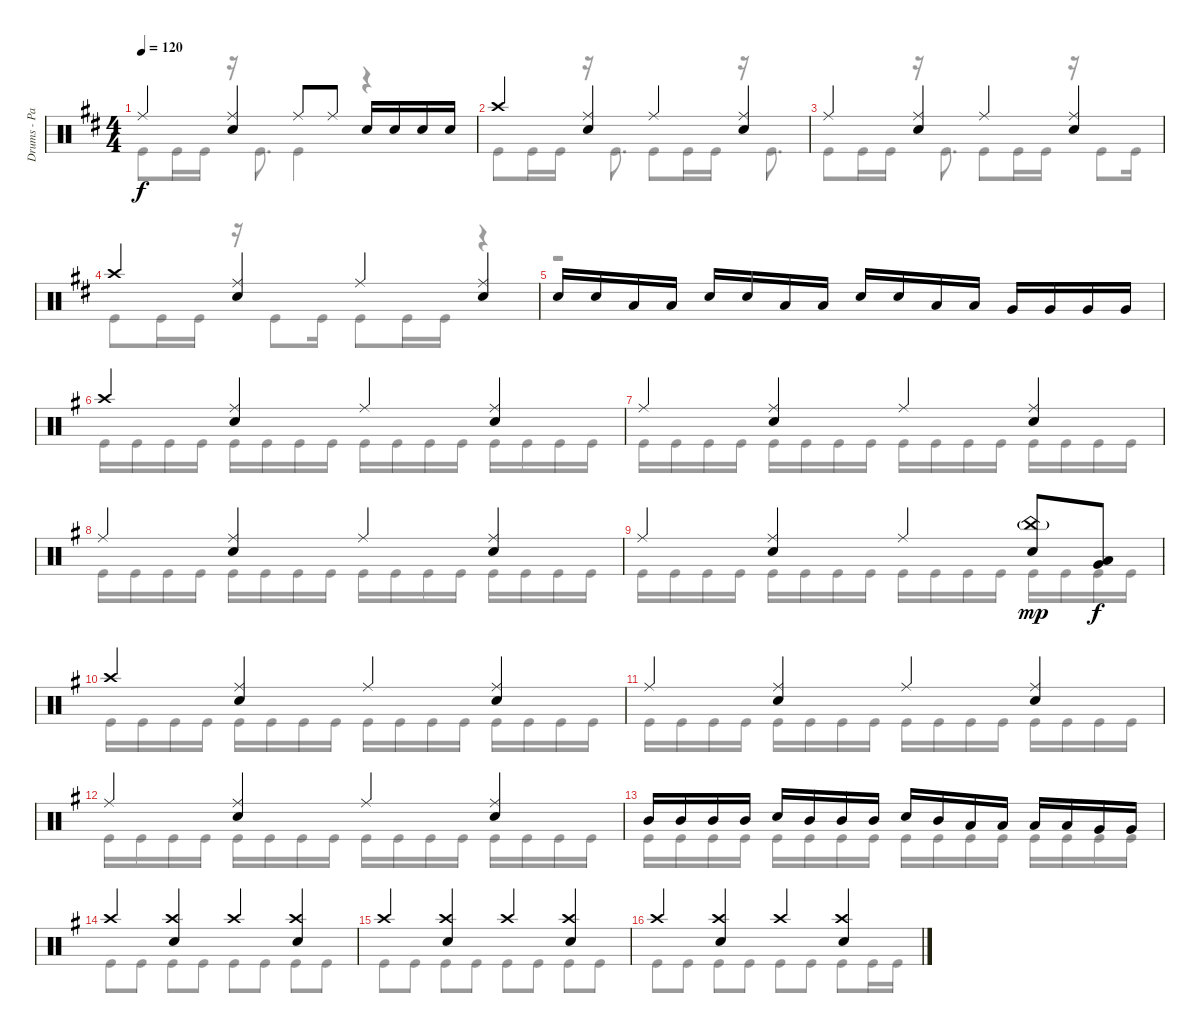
\track ("Drums - Patrick Johansson" "Drums - Pa") {instrument percussion}
\staff {score}
\articulation defaults
\voice
\ts (4 4)
\tempo 120
\clef neutral
\ks bminor "Ride (middle)".4{dy f}
("Ride (middle)" "Snare (hit) 2").4 "Ride (middle)".8 "Ride (middle)".8 "Snare (hit) 2".16 "Snare (hit) 2".16 "Snare (hit) 2".16 "Snare (hit) 2".16 |
"Crash high (hit)".4 ("Ride (middle)" "Snare (hit) 2").4 "Ride (middle)".4 ("Ride (middle)" "Snare (hit) 2").4 |
"Ride (middle)".4 ("Ride (middle)" "Snare (hit) 2").4 "Ride (middle)".4 ("Ride (middle)" "Snare (hit) 2").4 |
"Crash high (hit)".4 ("Ride (middle)" "Snare (hit) 2").4 "Ride (middle)".4 ("Ride (middle)" "Snare (hit) 2").4 |
"Snare (hit) 2".16 "Snare (hit) 2".16 "Low Tom (hit)".16 "Low Tom (hit)".16 "Snare (hit) 2".16 "Snare (hit) 2".16 "Low Tom (hit)".16 "Low Tom (hit)".16 "Snare (hit) 2".16 "Snare (hit) 2".16 "Low Tom (hit)".16 "Low Tom (hit)".16 "Very Low Tom (hit)".16 "Very Low Tom (hit)".16 "Very Low Tom (hit)".16 "Very Low Tom (hit)".16 |
\ks eminor "Crash high (hit)".4
("Ride (middle)" "Snare (hit) 2").4 "Ride (middle)".4 ("Ride (middle)" "Snare (hit) 2").4 |
"Ride (middle)".4 ("Ride (middle)" "Snare (hit) 2").4 "Ride (middle)".4 ("Ride (middle)" "Snare (hit) 2").4 |
"Ride (middle)".4 ("Ride (middle)" "Snare (hit) 2").4 "Ride (middle)".4 ("Ride (middle)" "Snare (hit) 2").4 |
"Ride (middle)".4 ("Ride (middle)" "Snare (hit) 2").4 "Ride (middle)".4 ("China (hit)"{g} "Snare (hit) 2").8{dy mp} ("Low Tom (hit)" "Very Low Tom (hit)").8{dy f} |
"Crash high (hit)".4 ("Ride (middle)" "Snare (hit) 2").4 "Ride (middle)".4 ("Ride (middle)" "Snare (hit) 2").4 |
"Ride (middle)".4 ("Ride (middle)" "Snare (hit) 2").4 "Ride (middle)".4 ("Ride (middle)" "Snare (hit) 2").4 |
"Ride (middle)".4 ("Ride (middle)" "Snare (hit) 2").4 "Ride (middle)".4 ("Ride (middle)" "Snare (hit) 2").4 |
"Mid Tom (hit)".16 "Mid Tom (hit)".16 "Mid Tom (hit)".16 "Mid Tom (hit)".16 "Snare (hit) 2".16 "Mid Tom (hit)".16 "Mid Tom (hit)".16 "Mid Tom (hit)".16 "Snare (hit) 2".16 "Mid Tom (hit)".16 "Low Tom (hit)".16 "Low Tom (hit)".16 "Low Tom (hit)".16 "Low Tom (hit)".16 "Very Low Tom (hit)".16 "Very Low Tom (hit)".16 |
"Crash high (hit)".4 ("Crash high (hit)" "Snare (hit) 2").4 "Crash high (hit)".4 ("Crash high (hit)" "Snare (hit) 2").4 |
"Crash high (hit)".4 ("Crash high (hit)" "Snare (hit) 2").4 "Crash high (hit)".4 ("Crash high (hit)" "Snare (hit) 2").4 |
"Crash high (hit)".4 ("Crash high (hit)" "Snare (hit) 2").4 "Crash high (hit)".4 ("Crash high (hit)" "Snare (hit) 2").4
\voice
\clef neutral
\ottava regular
\simile none
\ks bminor "Kick (hit)".8{dy f} "Kick (hit)".16 "Kick (hit)".16
r.16 "Kick (hit)".8{d} "Kick (hit)".4 r.4 |
"Kick (hit)".8 "Kick (hit)".16 "Kick (hit)".16 r.16 "Kick (hit)".8{d} "Kick (hit)".8 "Kick (hit)".16 "Kick (hit)".16 r.16 "Kick (hit)".8{d} |
"Kick (hit)".8 "Kick (hit)".16 "Kick (hit)".16 r.16 "Kick (hit)".8{d} "Kick (hit)".8 "Kick (hit)".16 "Kick (hit)".16 r.16 "Kick (hit)".8 "Kick (hit)".16 |
"Kick (hit)".8 "Kick (hit)".16 "Kick (hit)".16 r.16 "Kick (hit)".8 "Kick (hit)".16 "Kick (hit)".8 "Kick (hit)".16 "Kick (hit)".16 r.4 |
r.1 |
\ks eminor "Kick (hit)".16 "Kick (hit)".16 "Kick (hit)".16 "Kick (hit)".16 "Kick (hit)".16 "Kick (hit)".16 "Kick (hit)".16 "Kick (hit)".16 "Kick (hit)".16 "Kick (hit)".16 "Kick (hit)".16 "Kick (hit)".16 "Kick (hit)".16 "Kick (hit)".16 "Kick (hit)".16 "Kick (hit)".16
|
"Kick (hit)".16 "Kick (hit)".16 "Kick (hit)".16 "Kick (hit)".16 "Kick (hit)".16 "Kick (hit)".16 "Kick (hit)".16 "Kick (hit)".16 "Kick (hit)".16 "Kick (hit)".16 "Kick (hit)".16 "Kick (hit)".16 "Kick (hit)".16 "Kick (hit)".16 "Kick (hit)".16 "Kick (hit)".16 |
"Kick (hit)".16 "Kick (hit)".16 "Kick (hit)".16 "Kick (hit)".16 "Kick (hit)".16 "Kick (hit)".16 "Kick (hit)".16 "Kick (hit)".16 "Kick (hit)".16 "Kick (hit)".16 "Kick (hit)".16 "Kick (hit)".16 "Kick (hit)".16 "Kick (hit)".16 "Kick (hit)".16 "Kick (hit)".16 |
"Kick (hit)".16 "Kick (hit)".16 "Kick (hit)".16 "Kick (hit)".16 "Kick (hit)".16 "Kick (hit)".16 "Kick (hit)".16 "Kick (hit)".16 "Kick (hit)".16 "Kick (hit)".16 "Kick (hit)".16 "Kick (hit)".16 "Kick (hit)".16 "Kick (hit)".16 "Kick (hit)".16 "Kick (hit)".16 |
"Kick (hit)".16 "Kick (hit)".16 "Kick (hit)".16 "Kick (hit)".16 "Kick (hit)".16 "Kick (hit)".16 "Kick (hit)".16 "Kick (hit)".16 "Kick (hit)".16 "Kick (hit)".16 "Kick (hit)".16 "Kick (hit)".16 "Kick (hit)".16 "Kick (hit)".16 "Kick (hit)".16 "Kick (hit)".16 |
"Kick (hit)".16 "Kick (hit)".16 "Kick (hit)".16 "Kick (hit)".16 "Kick (hit)".16 "Kick (hit)".16 "Kick (hit)".16 "Kick (hit)".16 "Kick (hit)".16 "Kick (hit)".16 "Kick (hit)".16 "Kick (hit)".16 "Kick (hit)".16 "Kick (hit)".16 "Kick (hit)".16 "Kick (hit)".16 |
"Kick (hit)".16 "Kick (hit)".16 "Kick (hit)".16 "Kick (hit)".16 "Kick (hit)".16 "Kick (hit)".16 "Kick (hit)".16 "Kick (hit)".16 "Kick (hit)".16 "Kick (hit)".16 "Kick (hit)".16 "Kick (hit)".16 "Kick (hit)".16 "Kick (hit)".16 "Kick (hit)".16 "Kick (hit)".16 |
"Kick (hit)".16 "Kick (hit)".16 "Kick (hit)".16 "Kick (hit)".16 "Kick (hit)".16 "Kick (hit)".16 "Kick (hit)".16 "Kick (hit)".16 "Kick (hit)".16 "Kick (hit)".16 "Kick (hit)".16 "Kick (hit)".16 "Kick (hit)".16 "Kick (hit)".16 "Kick (hit)".16 "Kick (hit)".16 |
"Kick (hit)".8 "Kick (hit)".8 "Kick (hit)".8 "Kick (hit)".8 "Kick (hit)".8 "Kick (hit)".8 "Kick (hit)".8 "Kick (hit)".8 |
"Kick (hit)".8 "Kick (hit)".8 "Kick (hit)".8 "Kick (hit)".8 "Kick (hit)".8 "Kick (hit)".8 "Kick (hit)".8 "Kick (hit)".8 |
"Kick (hit)".8 "Kick (hit)".8 "Kick (hit)".8 "Kick (hit)".8 "Kick (hit)".8 "Kick (hit)".8 "Kick (hit)".8 "Kick (hit)".16 "Kick (hit)".16
